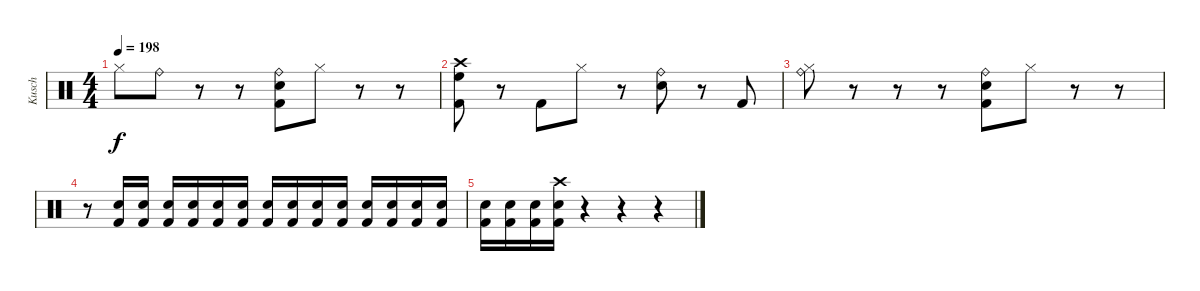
\track ("Kusch" "Kusch") {instrument percussion}
\staff {score}
\articulation defaults
\ts (4 4)
\tempo 198
\clef neutral
\ks c "Hi-Hat (closed)".8{dy f} "Ride (bell)".8
r.8 r.8 ("Snare (hit) 2" "Ride (bell)" "Kick (hit) 2").8 "Hi-Hat (closed)".8 r.8 r.8 |
("Crash high (hit)" "High Floor Tom (hit)" "Kick (hit) 2").8 r.8 "Kick (hit) 2".8 "Hi-Hat (closed)".8 r.8 ("Snare (hit) 2" "Ride (bell)").8 r.8 "Kick (hit) 2".8 |
("Ride (bell)" "Hi-Hat (closed)").8 r.8 r.8 r.8 ("Snare (hit) 2" "Ride (bell)" "Kick (hit) 2").8 "Hi-Hat (closed)".8 r.8 r.8 |
r.8 ("Snare (hit) 2" "Kick (hit) 2").16 ("Snare (hit) 2" "Kick (hit) 2").16 ("Snare (hit) 2" "Kick (hit) 2").16 ("Snare (hit) 2" "Kick (hit) 2").16 ("Snare (hit) 2" "Kick (hit) 2").16 ("Snare (hit) 2" "Kick (hit) 2").16 ("Snare (hit) 2" "Kick (hit) 2").16 ("Snare (hit) 2" "Kick (hit) 2").16 ("Snare (hit) 2" "Kick (hit) 2").16 ("Snare (hit) 2" "Kick (hit) 2").16 ("Snare (hit) 2" "Kick (hit) 2").16 ("Snare (hit) 2" "Kick (hit) 2").16 ("Snare (hit) 2" "Kick (hit) 2").16 ("Snare (hit) 2" "Kick (hit) 2").16 |
("Snare (hit) 2" "Kick (hit) 2").16 ("Snare (hit) 2" "Kick (hit) 2").16 ("Snare (hit) 2" "Kick (hit) 2").16 ("Crash high (hit)" "Snare (hit) 2" "Kick (hit) 2").16 r.4 r.4 r.4
